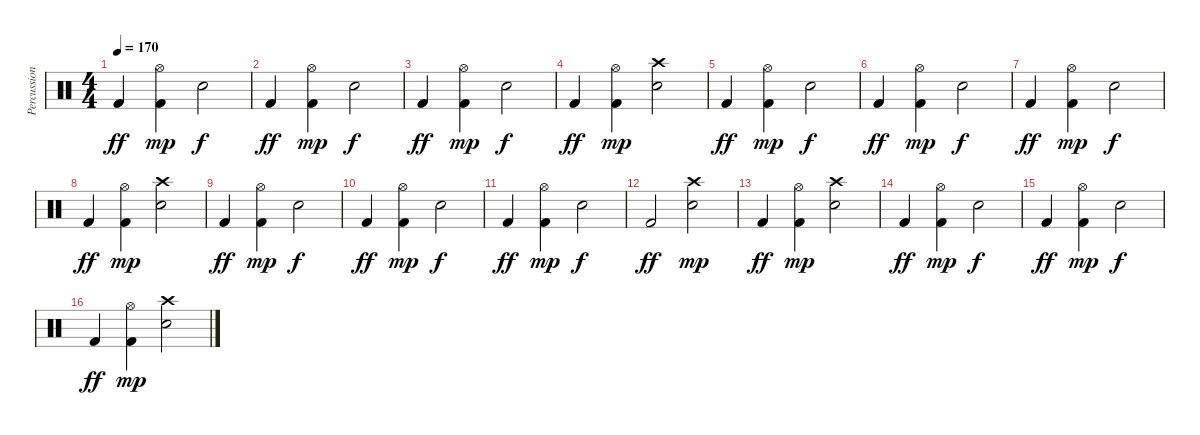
\track ("Percussion" "Percussion") {instrument percussion}
\staff {score}
\articulation defaults
\ts (4 4)
\tempo 170
\clef neutral
\ks c "Kick (hit) 2".4{dy ff}
("Hi-Hat (open)" "Kick (hit) 2").4{dy mp} "Electric Snare (hit)".2{dy f} |
"Kick (hit) 2".4{dy ff} ("Hi-Hat (open)" "Kick (hit) 2").4{dy mp} "Electric Snare (hit)".2{dy f} |
"Kick (hit) 2".4{dy ff} ("Hi-Hat (open)" "Kick (hit) 2").4{dy mp} "Electric Snare (hit)".2{dy f} |
"Kick (hit) 2".4{dy ff} ("Hi-Hat (open)" "Kick (hit) 2").4{dy mp} ("Crash high (hit)" "Electric Snare (hit)").2 |
"Kick (hit) 2".4{dy ff} ("Hi-Hat (open)" "Kick (hit) 2").4{dy mp} "Electric Snare (hit)".2{dy f} |
"Kick (hit) 2".4{dy ff} ("Hi-Hat (open)" "Kick (hit) 2").4{dy mp} "Electric Snare (hit)".2{dy f} |
"Kick (hit) 2".4{dy ff} ("Hi-Hat (open)" "Kick (hit) 2").4{dy mp} "Electric Snare (hit)".2{dy f} |
"Kick (hit) 2".4{dy ff} ("Hi-Hat (open)" "Kick (hit) 2").4{dy mp} ("Crash high (hit)" "Electric Snare (hit)").2 |
"Kick (hit) 2".4{dy ff} ("Hi-Hat (open)" "Kick (hit) 2").4{dy mp} "Electric Snare (hit)".2{dy f} |
"Kick (hit) 2".4{dy ff} ("Hi-Hat (open)" "Kick (hit) 2").4{dy mp} "Electric Snare (hit)".2{dy f} |
"Kick (hit) 2".4{dy ff} ("Hi-Hat (open)" "Kick (hit) 2").4{dy mp} "Electric Snare (hit)".2{dy f} |
"Kick (hit) 2".2{dy ff} ("Crash high (hit)" "Electric Snare (hit)").2{dy mp} |
"Kick (hit) 2".4{dy ff} ("Hi-Hat (open)" "Kick (hit) 2").4{dy mp} ("Crash high (hit)" "Electric Snare (hit)").2 |
"Kick (hit) 2".4{dy ff} ("Hi-Hat (open)" "Kick (hit) 2").4{dy mp} "Electric Snare (hit)".2{dy f} |
"Kick (hit) 2".4{dy ff} ("Hi-Hat (open)" "Kick (hit) 2").4{dy mp} "Electric Snare (hit)".2{dy f} |
"Kick (hit) 2".4{dy ff} ("Hi-Hat (open)" "Kick (hit) 2").4{dy mp} ("Crash high (hit)" "Electric Snare (hit)").2
